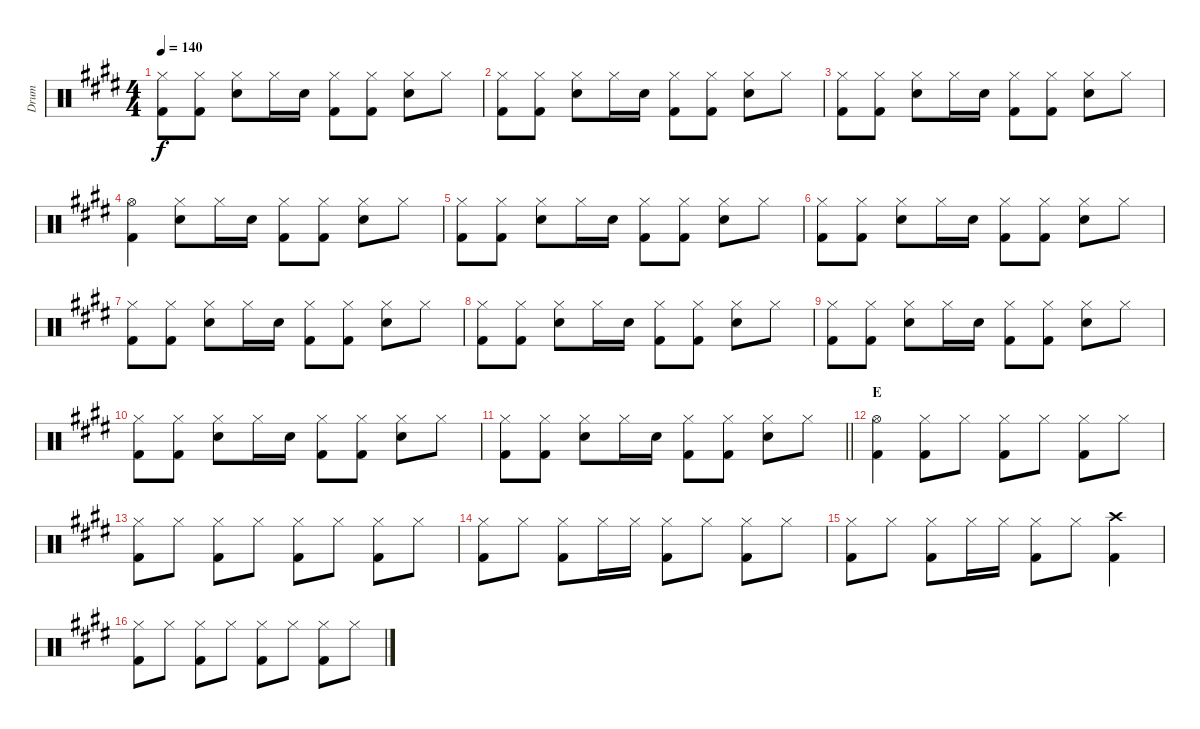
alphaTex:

\track ("Drum" "Drum") {instrument percussion}
\staff {score}
\articulation defaults
\ts (4 4)
\tempo 140
\clef neutral
\ks c#minor
("Hi-Hat (closed)" "Kick (hit) 2").8{dy f} ("Hi-Hat (closed)" "Kick (hit) 2").8 ("Hi-Hat (closed)" "Snare (hit) 2").8 "Hi-Hat (closed)".16 "Snare (hit) 2".16 ("Hi-Hat (closed)" "Kick (hit) 2").8 ("Hi-Hat (closed)" "Kick (hit) 2").8 ("Hi-Hat (closed)" "Snare (hit) 2").8 "Hi-Hat (closed)".8 |
("Hi-Hat (closed)" "Kick (hit) 2").8 ("Hi-Hat (closed)" "Kick (hit) 2").8 ("Hi-Hat (closed)" "Snare (hit) 2").8 "Hi-Hat (closed)".16 "Snare (hit) 2".16 ("Hi-Hat (closed)" "Kick (hit) 2").8 ("Hi-Hat (closed)" "Kick (hit) 2").8 ("Hi-Hat (closed)" "Snare (hit) 2").8 "Hi-Hat (closed)".8 |
("Hi-Hat (closed)" "Kick (hit) 2").8 ("Hi-Hat (closed)" "Kick (hit) 2").8 ("Hi-Hat (closed)" "Snare (hit) 2").8 "Hi-Hat (closed)".16 "Snare (hit) 2".16 ("Hi-Hat (closed)" "Kick (hit) 2").8 ("Hi-Hat (closed)" "Kick (hit) 2").8 ("Hi-Hat (closed)" "Snare (hit) 2").8 "Hi-Hat (closed)".8 |
("Hi-Hat (open)" "Kick (hit) 2").4 ("Hi-Hat (closed)" "Snare (hit) 2").8 "Hi-Hat (closed)".16 "Snare (hit) 2".16 ("Hi-Hat (closed)" "Kick (hit) 2").8 ("Hi-Hat (closed)" "Kick (hit) 2").8 ("Hi-Hat (closed)" "Snare (hit) 2").8 "Hi-Hat (closed)".8 |
("Hi-Hat (closed)" "Kick (hit) 2").8 ("Hi-Hat (closed)" "Kick (hit) 2").8 ("Hi-Hat (closed)" "Snare (hit) 2").8 "Hi-Hat (closed)".16 "Snare (hit) 2".16 ("Hi-Hat (closed)" "Kick (hit) 2").8 ("Hi-Hat (closed)" "Kick (hit) 2").8 ("Hi-Hat (closed)" "Snare (hit) 2").8 "Hi-Hat (closed)".8 |
("Hi-Hat (closed)" "Kick (hit) 2").8 ("Hi-Hat (closed)" "Kick (hit) 2").8 ("Hi-Hat (closed)" "Snare (hit) 2").8 "Hi-Hat (closed)".16 "Snare (hit) 2".16 ("Hi-Hat (closed)" "Kick (hit) 2").8 ("Hi-Hat (closed)" "Kick (hit) 2").8 ("Hi-Hat (closed)" "Snare (hit) 2").8 "Hi-Hat (closed)".8 |
("Hi-Hat (closed)" "Kick (hit) 2").8 ("Hi-Hat (closed)" "Kick (hit) 2").8 ("Hi-Hat (closed)" "Snare (hit) 2").8 "Hi-Hat (closed)".16 "Snare (hit) 2".16 ("Hi-Hat (closed)" "Kick (hit) 2").8 ("Hi-Hat (closed)" "Kick (hit) 2").8 ("Hi-Hat (closed)" "Snare (hit) 2").8 "Hi-Hat (closed)".8 |
("Hi-Hat (closed)" "Kick (hit) 2").8 ("Hi-Hat (closed)" "Kick (hit) 2").8 ("Hi-Hat (closed)" "Snare (hit) 2").8 "Hi-Hat (closed)".16 "Snare (hit) 2".16 ("Hi-Hat (closed)" "Kick (hit) 2").8 ("Hi-Hat (closed)" "Kick (hit) 2").8 ("Hi-Hat (closed)" "Snare (hit) 2").8 "Hi-Hat (closed)".8 |
("Hi-Hat (closed)" "Kick (hit) 2").8 ("Hi-Hat (closed)" "Kick (hit) 2").8 ("Hi-Hat (closed)" "Snare (hit) 2").8 "Hi-Hat (closed)".16 "Snare (hit) 2".16 ("Hi-Hat (closed)" "Kick (hit) 2").8 ("Hi-Hat (closed)" "Kick (hit) 2").8 ("Hi-Hat (closed)" "Snare (hit) 2").8 "Hi-Hat (closed)".8 |
("Hi-Hat (closed)" "Kick (hit) 2").8 ("Hi-Hat (closed)" "Kick (hit) 2").8 ("Hi-Hat (closed)" "Snare (hit) 2").8 "Hi-Hat (closed)".16 "Snare (hit) 2".16 ("Hi-Hat (closed)" "Kick (hit) 2").8 ("Hi-Hat (closed)" "Kick (hit) 2").8 ("Hi-Hat (closed)" "Snare (hit) 2").8 "Hi-Hat (closed)".8 |
\barLineRight lightlight
("Hi-Hat (closed)" "Kick (hit) 2").8 ("Hi-Hat (closed)" "Kick (hit) 2").8 ("Hi-Hat (closed)" "Snare (hit) 2").8 "Hi-Hat (closed)".16 "Snare (hit) 2".16 ("Hi-Hat (closed)" "Kick (hit) 2").8 ("Hi-Hat (closed)" "Kick (hit) 2").8 ("Hi-Hat (closed)" "Snare (hit) 2").8 "Hi-Hat (closed)".8 |
\section ("" "E")
("Hi-Hat (open)" "Kick (hit) 2").4 ("Hi-Hat (closed)" "Kick (hit) 2").8 "Hi-Hat (closed)".8 ("Hi-Hat (closed)" "Kick (hit) 2").8 "Hi-Hat (closed)".8 ("Hi-Hat (closed)" "Kick (hit) 2").8 "Hi-Hat (closed)".8 |
("Hi-Hat (closed)" "Kick (hit) 2").8 "Hi-Hat (closed)".8 ("Hi-Hat (closed)" "Kick (hit) 2").8 "Hi-Hat (closed)".8 ("Hi-Hat (closed)" "Kick (hit) 2").8 "Hi-Hat (closed)".8 ("Hi-Hat (closed)" "Kick (hit) 2").8 "Hi-Hat (closed)".8 |
("Hi-Hat (closed)" "Kick (hit) 2").8 "Hi-Hat (closed)".8 ("Hi-Hat (closed)" "Kick (hit) 2").8 "Hi-Hat (closed)".16 "Hi-Hat (closed)".16 ("Hi-Hat (closed)" "Kick (hit) 2").8 "Hi-Hat (closed)".8 ("Hi-Hat (closed)" "Kick (hit) 2").8 "Hi-Hat (closed)".8 |
("Hi-Hat (closed)" "Kick (hit) 2").8 "Hi-Hat (closed)".8 ("Hi-Hat (closed)" "Kick (hit) 2").8 "Hi-Hat (closed)".16 "Hi-Hat (closed)".16 ("Hi-Hat (closed)" "Kick (hit) 2").8 "Hi-Hat (closed)".8 ("Crash high (hit)" "Kick (hit) 2").4 |
("Hi-Hat (closed)" "Kick (hit) 2").8 "Hi-Hat (closed)".8 ("Hi-Hat (closed)" "Kick (hit) 2").8 "Hi-Hat (closed)".8 ("Hi-Hat (closed)" "Kick (hit) 2").8 "Hi-Hat (closed)".8 ("Hi-Hat (closed)" "Kick (hit) 2").8 "Hi-Hat (closed)".8
